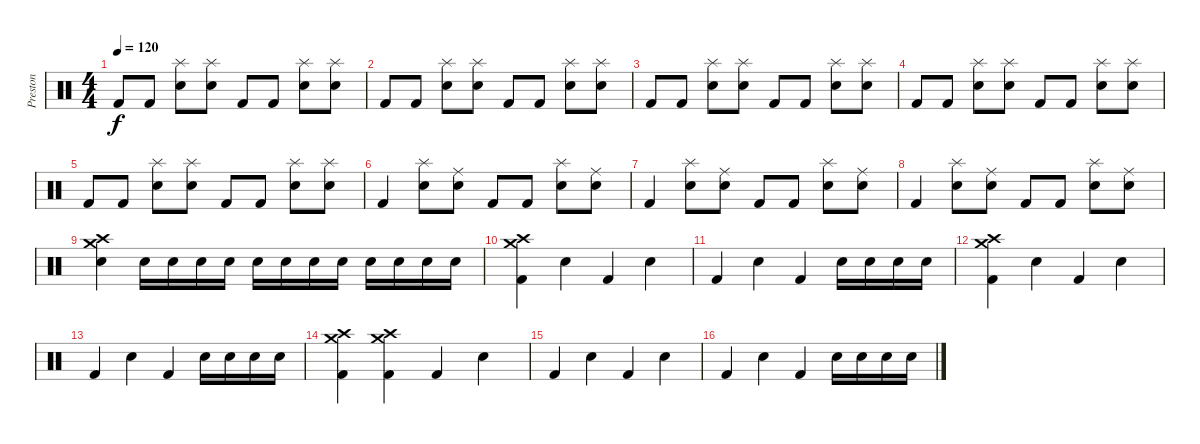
\track ("Preston" "Preston") {instrument percussion}
\staff {score}
\articulation defaults
\ts (4 4)
\tempo 120
\clef neutral
\ks c "Kick (hit) 2".8{dy f} "Kick (hit) 2".8
("Splash (hit)" "Electric Snare (hit)").8 ("Splash (hit)" "Electric Snare (hit)").8 "Kick (hit) 2".8 "Kick (hit) 2".8 ("Splash (hit)" "Electric Snare (hit)").8 ("Splash (hit)" "Electric Snare (hit)").8 |
"Kick (hit) 2".8 "Kick (hit) 2".8 ("Splash (hit)" "Electric Snare (hit)").8 ("Splash (hit)" "Electric Snare (hit)").8 "Kick (hit) 2".8 "Kick (hit) 2".8 ("Splash (hit)" "Electric Snare (hit)").8 ("Splash (hit)" "Electric Snare (hit)").8 |
"Kick (hit) 2".8 "Kick (hit) 2".8 ("Splash (hit)" "Electric Snare (hit)").8 ("Splash (hit)" "Electric Snare (hit)").8 "Kick (hit) 2".8 "Kick (hit) 2".8 ("Splash (hit)" "Electric Snare (hit)").8 ("Splash (hit)" "Electric Snare (hit)").8 |
"Kick (hit) 2".8 "Kick (hit) 2".8 ("Splash (hit)" "Electric Snare (hit)").8 ("Splash (hit)" "Electric Snare (hit)").8 "Kick (hit) 2".8 "Kick (hit) 2".8 ("Splash (hit)" "Electric Snare (hit)").8 ("Splash (hit)" "Electric Snare (hit)").8 |
"Kick (hit) 2".8 "Kick (hit) 2".8 ("Splash (hit)" "Electric Snare (hit)").8 ("Splash (hit)" "Electric Snare (hit)").8 "Kick (hit) 2".8 "Kick (hit) 2".8 ("Splash (hit)" "Electric Snare (hit)").8 ("Splash (hit)" "Electric Snare (hit)").8 |
"Kick (hit) 2".4 ("Splash (hit)" "Electric Snare (hit)").8 ("Ride (middle)" "Electric Snare (hit)").8 "Kick (hit) 2".8 "Kick (hit) 2".8 ("Splash (hit)" "Electric Snare (hit)").8 ("Ride (middle)" "Electric Snare (hit)").8 |
"Kick (hit) 2".4 ("Splash (hit)" "Electric Snare (hit)").8 ("Ride (middle)" "Electric Snare (hit)").8 "Kick (hit) 2".8 "Kick (hit) 2".8 ("Splash (hit)" "Electric Snare (hit)").8 ("Ride (middle)" "Electric Snare (hit)").8 |
"Kick (hit) 2".4 ("Splash (hit)" "Electric Snare (hit)").8 ("Ride (middle)" "Electric Snare (hit)").8 "Kick (hit) 2".8 "Kick (hit) 2".8 ("Splash (hit)" "Electric Snare (hit)").8 ("Ride (middle)" "Electric Snare (hit)").8 |
("Crash medium (hit)" "Crash high (hit)" "Electric Snare (hit)").4 "Electric Snare (hit)".16 "Electric Snare (hit)".16 "Electric Snare (hit)".16 "Electric Snare (hit)".16 "Electric Snare (hit)".16 "Electric Snare (hit)".16 "Electric Snare (hit)".16 "Electric Snare (hit)".16 "Electric Snare (hit)".16 "Electric Snare (hit)".16 "Electric Snare (hit)".16 "Electric Snare (hit)".16 |
("Crash medium (hit)" "Crash high (hit)" "Kick (hit) 2").4 "Electric Snare (hit)".4 "Kick (hit) 2".4 "Electric Snare (hit)".4 |
"Kick (hit) 2".4 "Electric Snare (hit)".4 "Kick (hit) 2".4 "Electric Snare (hit)".16 "Electric Snare (hit)".16 "Electric Snare (hit)".16 "Electric Snare (hit)".16 |
("Crash medium (hit)" "Crash high (hit)" "Kick (hit) 2").4 "Electric Snare (hit)".4 "Kick (hit) 2".4 "Electric Snare (hit)".4 |
"Kick (hit) 2".4 "Electric Snare (hit)".4 "Kick (hit) 2".4 "Electric Snare (hit)".16 "Electric Snare (hit)".16 "Electric Snare (hit)".16 "Electric Snare (hit)".16 |
("Crash medium (hit)" "Crash high (hit)" "Kick (hit) 2").4 ("Crash medium (hit)" "Crash high (hit)" "Kick (hit) 2").4 "Kick (hit) 2".4 "Electric Snare (hit)".4 |
"Kick (hit) 2".4 "Electric Snare (hit)".4 "Kick (hit) 2".4 "Electric Snare (hit)".4 |
"Kick (hit) 2".4 "Electric Snare (hit)".4 "Kick (hit) 2".4 "Electric Snare (hit)".16 "Electric Snare (hit)".16 "Electric Snare (hit)".16 "Electric Snare (hit)".16
